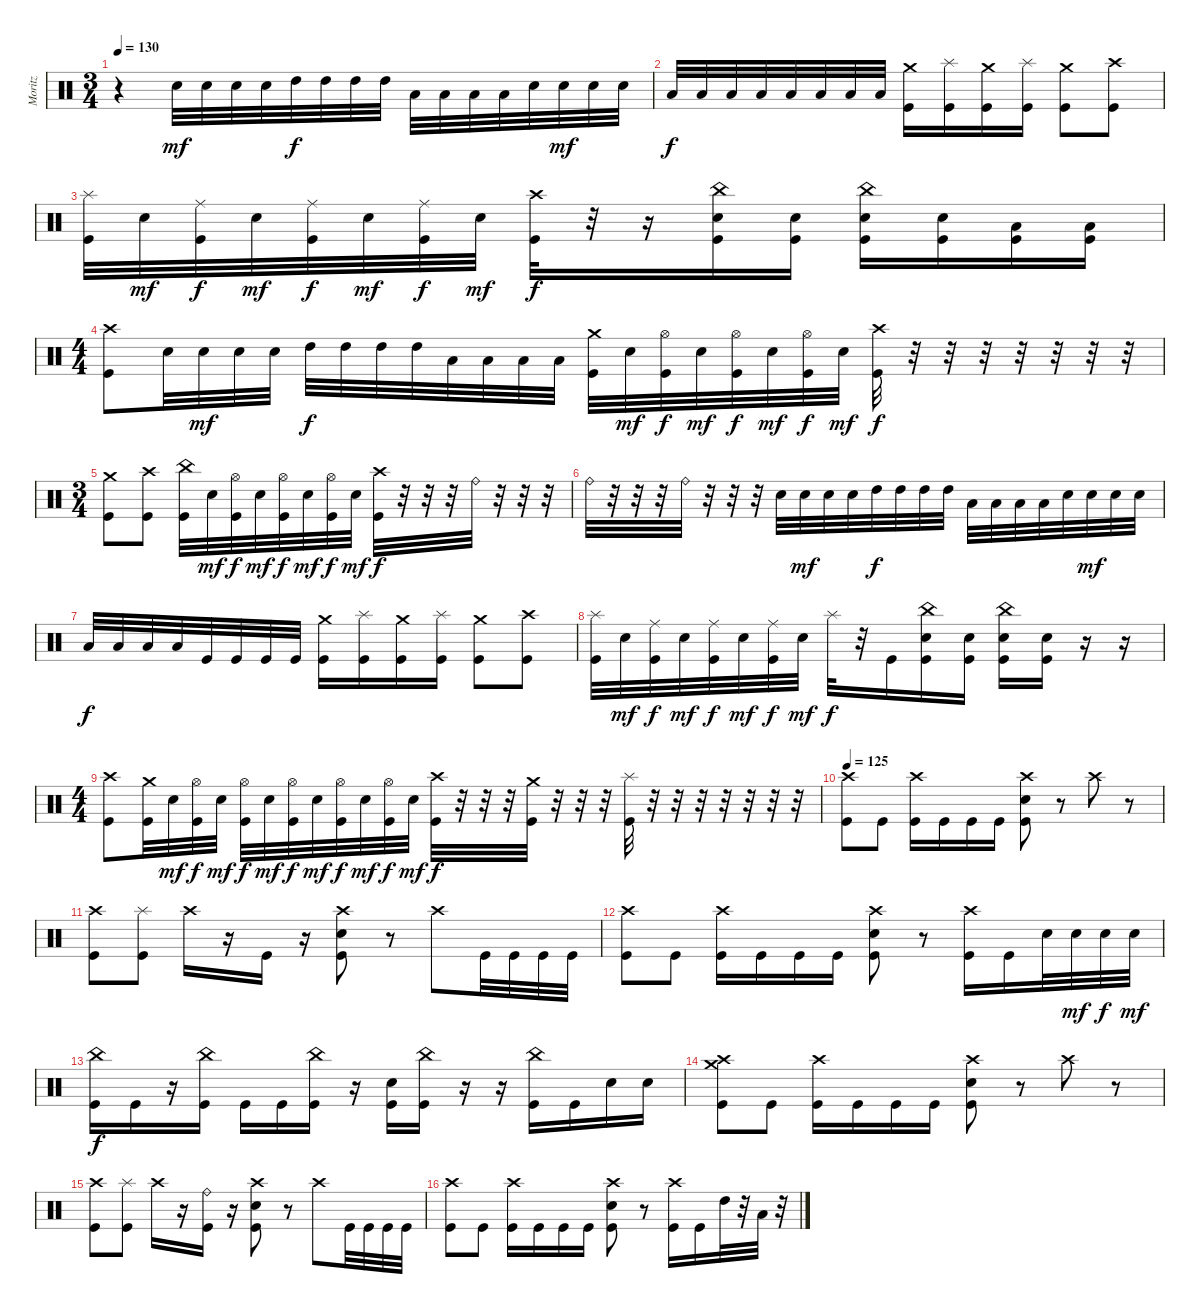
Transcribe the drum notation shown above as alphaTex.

\track ("Moritz" "Moritz") {instrument percussion}
\staff {score}
\articulation defaults
\ts (3 4)
\tempo 130
\clef neutral
\ks c
r.4{dy f} "Snare (hit) 2".32{dy mf} "Snare (hit) 2".32 "Snare (hit) 2".32 "Snare (hit) 2".32 "High Tom (hit)".32{dy f} "High Tom (hit)".32 "High Tom (hit)".32 "High Tom (hit)".32 "Low Tom (hit)".32 "Low Tom (hit)".32 "Low Tom (hit)".32 "Low Tom (hit)".32 "Snare (hit) 2".32 "Snare (hit) 2".32{dy mf} "Snare (hit) 2".32 "Snare (hit) 2".32 |
"Low Tom (hit)".32{dy f} "Low Tom (hit)".32 "Low Tom (hit)".32 "Low Tom (hit)".32 "Low Floor Tom (hit)".32 "Low Floor Tom (hit)".32 "Low Floor Tom (hit)".32 "Low Floor Tom (hit)".32 ("Crash medium (hit)" "Kick (hit)").16 ("Splash (hit)" "Kick (hit)").16 ("Crash medium (hit)" "Kick (hit)").16 ("Splash (hit)" "Kick (hit)").16 ("Crash medium (hit)" "Kick (hit)").8 ("Crash high (hit)" "Kick (hit)").8 |
("Splash (hit)" "Kick (hit)").32 "Snare (hit) 2".32{dy mf} ("Ride (middle)" "Kick (hit)").32{dy f} "Snare (hit) 2".32{dy mf} ("Ride (middle)" "Kick (hit)").32{dy f} "Snare (hit) 2".32{dy mf} ("Ride (middle)" "Kick (hit)").32{dy f} "Snare (hit) 2".32{dy mf} ("Crash high (hit)" "Kick (hit)").32{dy f} r.32 r.16 ("China (hit)" "Snare (hit) 2" "Kick (hit)").16 ("Snare (hit) 2" "Kick (hit)").16 ("China (hit)" "Snare (hit) 2" "Kick (hit)").16 ("Snare (hit) 2" "Kick (hit)").16 ("Low Floor Tom (hit)" "Kick (hit)").16 ("Low Floor Tom (hit)" "Kick (hit)").16 |
\ts (4 4)
("Crash high (hit)" "Kick (hit)").8 "Snare (hit) 2".32 "Snare (hit) 2".32{dy mf} "Snare (hit) 2".32 "Snare (hit) 2".32 "High Tom (hit)".32{dy f} "High Tom (hit)".32 "High Tom (hit)".32 "High Tom (hit)".32 "Low Tom (hit)".32 "Low Tom (hit)".32 "Low Tom (hit)".32 "Low Tom (hit)".32 ("Crash medium (hit)" "Kick (hit)").32 "Snare (hit) 2".32{dy mf} ("Hi-Hat (open)" "Kick (hit)").32{dy f} "Snare (hit) 2".32{dy mf} ("Hi-Hat (open)" "Kick (hit)").32{dy f} "Snare (hit) 2".32{dy mf} ("Hi-Hat (open)" "Kick (hit)").32{dy f} "Snare (hit) 2".32{dy mf} ("Crash high (hit)" "Kick (hit)").32{dy f} r.32 r.32 r.32 r.32 r.32 r.32 r.32 |
\ts (3 4)
("Crash medium (hit)" "Kick (hit)").8 ("Crash high (hit)" "Kick (hit)").8 ("China (hit)" "Kick (hit)").32 "Snare (hit) 2".32{dy mf} ("Hi-Hat (open)" "Kick (hit)").32{dy f} "Snare (hit) 2".32{dy mf} ("Hi-Hat (open)" "Kick (hit)").32{dy f} "Snare (hit) 2".32{dy mf} ("Hi-Hat (open)" "Kick (hit)").32{dy f} "Snare (hit) 2".32{dy mf} ("Crash high (hit)" "Kick (hit)").32{dy f} r.32 r.32 r.32 "Ride (bell)".32 r.32 r.32 r.32 |
"Ride (bell)".32 r.32 r.32 r.32 "Ride (bell)".32 r.32 r.32 r.32 "Snare (hit) 2".32 "Snare (hit) 2".32{dy mf} "Snare (hit) 2".32 "Snare (hit) 2".32 "High Tom (hit)".32{dy f} "High Tom (hit)".32 "High Tom (hit)".32 "High Tom (hit)".32 "Low Tom (hit)".32 "Low Tom (hit)".32 "Low Tom (hit)".32 "Low Tom (hit)".32 "Snare (hit) 2".32 "Snare (hit) 2".32{dy mf} "Snare (hit) 2".32 "Snare (hit) 2".32 |
"Low Floor Tom (hit)".32{dy f} "Low Floor Tom (hit)".32 "Low Floor Tom (hit)".32 "Low Floor Tom (hit)".32 "Kick (hit)".32 "Kick (hit)".32 "Kick (hit)".32 "Kick (hit)".32 ("Crash medium (hit)" "Kick (hit)").16 ("Splash (hit)" "Kick (hit)").16 ("Crash medium (hit)" "Kick (hit)").16 ("Splash (hit)" "Kick (hit)").16 ("Crash medium (hit)" "Kick (hit)").8 ("Crash high (hit)" "Kick (hit)").8 |
("Splash (hit)" "Kick (hit)").32 "Snare (hit) 2".32{dy mf} ("Ride (middle)" "Kick (hit)").32{dy f} "Snare (hit) 2".32{dy mf} ("Ride (middle)" "Kick (hit)").32{dy f} "Snare (hit) 2".32{dy mf} ("Ride (middle)" "Kick (hit)").32{dy f} "Snare (hit) 2".32{dy mf} "Splash (hit)".32{dy f} r.32 "Kick (hit)".16 ("China (hit)" "Snare (hit) 2" "Kick (hit)").16 ("Snare (hit) 2" "Kick (hit)").16 ("China (hit)" "Snare (hit) 2" "Kick (hit)").16 ("Snare (hit) 2" "Kick (hit)").16 r.16 r.16 |
\ts (4 4)
("Crash high (hit)" "Kick (hit)").8 ("Crash medium (hit)" "Kick (hit)").32 "Snare (hit) 2".32{dy mf} ("Hi-Hat (open)" "Kick (hit)").32{dy f} "Snare (hit) 2".32{dy mf} ("Hi-Hat (open)" "Kick (hit)").32{dy f} "Snare (hit) 2".32{dy mf} ("Hi-Hat (open)" "Kick (hit)").32{dy f} "Snare (hit) 2".32{dy mf} ("Hi-Hat (open)" "Kick (hit)").32{dy f} "Snare (hit) 2".32{dy mf} ("Hi-Hat (open)" "Kick (hit)").32{dy f} "Snare (hit) 2".32{dy mf} ("Crash high (hit)" "Kick (hit)").32{dy f} r.32 r.32 r.32 ("Crash medium (hit)" "Kick (hit)").32 r.32 r.32 r.32 ("Splash (hit)" "Kick (hit)").32 r.32 r.32 r.32 r.32 r.32 r.32 r.32 |
\tempo 125
("Crash high (hit)" "Kick (hit)").8 "Kick (hit)".8 ("Crash high (hit)" "Kick (hit)").16 "Kick (hit)".16 "Kick (hit)".16 "Kick (hit)".16 ("Crash high (hit)" "Snare (hit) 2" "Kick (hit)").8 r.8 "Crash high (hit)".8 r.8 |
("Crash high (hit)" "Kick (hit)").8 ("Splash (hit)" "Kick (hit)").8 "Crash high (hit)".16 r.16 "Kick (hit)".16 r.16 ("Crash high (hit)" "Snare (hit) 2" "Kick (hit)").8 r.8 "Crash high (hit)".8 "Kick (hit)".32 "Kick (hit)".32 "Kick (hit)".32 "Kick (hit)".32 |
("Crash high (hit)" "Kick (hit)").8 "Kick (hit)".8 ("Crash high (hit)" "Kick (hit)").16 "Kick (hit)".16 "Kick (hit)".16 "Kick (hit)".16 ("Crash high (hit)" "Snare (hit) 2" "Kick (hit)").8 r.8 ("Crash high (hit)" "Kick (hit)").16 "Kick (hit)".16 "Snare (hit) 2".32 "Snare (hit) 2".32{dy mf} "Snare (hit) 2".32{dy f} "Snare (hit) 2".32{dy mf} |
("China (hit)" "Kick (hit)").16{dy f} "Kick (hit)".16 r.16 ("China (hit)" "Kick (hit)").16 "Kick (hit)".16 "Kick (hit)".16 ("China (hit)" "Kick (hit)").16 r.16 ("Snare (hit) 2" "Kick (hit)").16 ("China (hit)" "Kick (hit)").16 r.16 r.16 ("China (hit)" "Kick (hit)").16 "Kick (hit)".16 "Snare (hit) 2".16 "Snare (hit) 2".16 |
("Crash medium (hit)" "Crash high (hit)" "Kick (hit)").8 "Kick (hit)".8 ("Crash high (hit)" "Kick (hit)").16 "Kick (hit)".16 "Kick (hit)".16 "Kick (hit)".16 ("Crash high (hit)" "Snare (hit) 2" "Kick (hit)").8 r.8 "Crash high (hit)".8 r.8 |
("Crash high (hit)" "Kick (hit)").8 ("Splash (hit)" "Kick (hit)").8 "Crash high (hit)".16 r.16 ("Ride (bell)" "Kick (hit)").16 r.16 ("Crash high (hit)" "Snare (hit) 2" "Kick (hit)").8 r.8 "Crash high (hit)".8 "Kick (hit)".32 "Kick (hit)".32 "Kick (hit)".32 "Kick (hit)".32 |
("Crash high (hit)" "Kick (hit)").8 "Kick (hit)".8 ("Crash high (hit)" "Kick (hit)").16 "Kick (hit)".16 "Kick (hit)".16 "Kick (hit)".16 ("Crash high (hit)" "Snare (hit) 2" "Kick (hit)").8 r.8 ("Crash high (hit)" "Kick (hit)").16 "Kick (hit)".16 "High Tom (hit)".32 r.32 "Low Floor Tom (hit)".32 r.32
